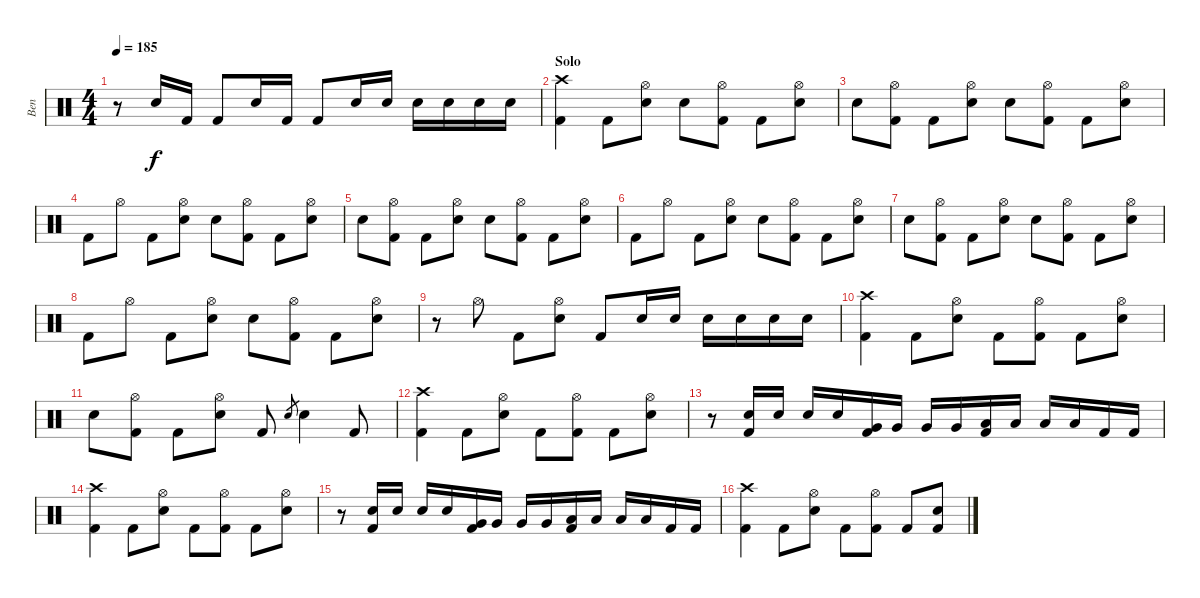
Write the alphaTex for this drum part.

\track ("Ben" "Ben") {instrument percussion}
\staff {score}
\articulation defaults
\ts (4 4)
\tempo 185
\clef neutral
\ks c
r.8{dy f} "Electric Snare (hit)".16 "Kick (hit) 2".16 "Kick (hit) 2".8 "Electric Snare (hit)".16 "Kick (hit) 2".16 "Kick (hit) 2".8 "Electric Snare (hit)".16 "Electric Snare (hit)".16 "Electric Snare (hit)".16 "Electric Snare (hit)".16 "Electric Snare (hit)".16 "Electric Snare (hit)".16 |
\section ("" "Solo")
("Crash high (hit)" "Kick (hit) 2").4 "Kick (hit) 2".8 ("Hi-Hat (open)" "Electric Snare (hit)").8 "Electric Snare (hit)".8 ("Hi-Hat (open)" "Kick (hit) 2").8 "Kick (hit) 2".8 ("Hi-Hat (open)" "Electric Snare (hit)").8 |
"Electric Snare (hit)".8 ("Hi-Hat (open)" "Kick (hit) 2").8 "Kick (hit) 2".8 ("Hi-Hat (open)" "Electric Snare (hit)").8 "Electric Snare (hit)".8 ("Hi-Hat (open)" "Kick (hit) 2").8 "Kick (hit) 2".8 ("Hi-Hat (open)" "Electric Snare (hit)").8 |
"Kick (hit) 2".8 "Hi-Hat (open)".8 "Kick (hit) 2".8 ("Hi-Hat (open)" "Electric Snare (hit)").8 "Electric Snare (hit)".8 ("Hi-Hat (open)" "Kick (hit) 2").8 "Kick (hit) 2".8 ("Hi-Hat (open)" "Electric Snare (hit)").8 |
"Electric Snare (hit)".8 ("Hi-Hat (open)" "Kick (hit) 2").8 "Kick (hit) 2".8 ("Hi-Hat (open)" "Electric Snare (hit)").8 "Electric Snare (hit)".8 ("Hi-Hat (open)" "Kick (hit) 2").8 "Kick (hit) 2".8 ("Hi-Hat (open)" "Electric Snare (hit)").8 |
"Kick (hit) 2".8 "Hi-Hat (open)".8 "Kick (hit) 2".8 ("Hi-Hat (open)" "Electric Snare (hit)").8 "Electric Snare (hit)".8 ("Hi-Hat (open)" "Kick (hit) 2").8 "Kick (hit) 2".8 ("Hi-Hat (open)" "Electric Snare (hit)").8 |
"Electric Snare (hit)".8 ("Hi-Hat (open)" "Kick (hit) 2").8 "Kick (hit) 2".8 ("Hi-Hat (open)" "Electric Snare (hit)").8 "Electric Snare (hit)".8 ("Hi-Hat (open)" "Kick (hit) 2").8 "Kick (hit) 2".8 ("Hi-Hat (open)" "Electric Snare (hit)").8 |
"Kick (hit) 2".8 "Hi-Hat (open)".8 "Kick (hit) 2".8 ("Hi-Hat (open)" "Electric Snare (hit)").8 "Electric Snare (hit)".8 ("Hi-Hat (open)" "Kick (hit) 2").8 "Kick (hit) 2".8 ("Hi-Hat (open)" "Electric Snare (hit)").8 |
r.8 "Hi-Hat (open)".8 "Kick (hit) 2".8 ("Hi-Hat (open)" "Electric Snare (hit)").8 "Kick (hit) 2".8 "Electric Snare (hit)".16 "Electric Snare (hit)".16 "Electric Snare (hit)".16 "Electric Snare (hit)".16 "Electric Snare (hit)".16 "Electric Snare (hit)".16 |
("Crash high (hit)" "Kick (hit) 2").4 "Kick (hit) 2".8 ("Hi-Hat (open)" "Electric Snare (hit)").8 "Kick (hit) 2".8 ("Hi-Hat (open)" "Kick (hit) 2").8 "Kick (hit) 2".8 ("Hi-Hat (open)" "Electric Snare (hit)").8 |
"Electric Snare (hit)".8 ("Hi-Hat (open)" "Kick (hit) 2").8 "Kick (hit) 2".8 ("Hi-Hat (open)" "Electric Snare (hit)").8 "Kick (hit) 2".8 "Electric Snare (hit)".8{gr} "Electric Snare (hit)".4 "Kick (hit) 2".8 |
("Crash high (hit)" "Kick (hit) 2").4 "Kick (hit) 2".8 ("Hi-Hat (open)" "Electric Snare (hit)").8 "Kick (hit) 2".8 ("Hi-Hat (open)" "Kick (hit) 2").8 "Kick (hit) 2".8 ("Hi-Hat (open)" "Electric Snare (hit)").8 |
r.8 ("Electric Snare (hit)" "Kick (hit) 2").16 "Electric Snare (hit)".16 "Electric Snare (hit)".16 "Electric Snare (hit)".16 ("Very Low Tom (hit)" "Kick (hit) 2").16 "Very Low Tom (hit)".16 "Very Low Tom (hit)".16 "Very Low Tom (hit)".16 ("Low Floor Tom (hit)" "Kick (hit) 2").16 "Low Floor Tom (hit)".16 "Low Floor Tom (hit)".16 "Low Floor Tom (hit)".16 "Kick (hit) 2".16 "Kick (hit) 2".16 |
("Crash high (hit)" "Kick (hit) 2").4 "Kick (hit) 2".8 ("Hi-Hat (open)" "Electric Snare (hit)").8 "Kick (hit) 2".8 ("Hi-Hat (open)" "Kick (hit) 2").8 "Kick (hit) 2".8 ("Hi-Hat (open)" "Electric Snare (hit)").8 |
r.8 ("Electric Snare (hit)" "Kick (hit) 2").16 "Electric Snare (hit)".16 "Electric Snare (hit)".16 "Electric Snare (hit)".16 ("Very Low Tom (hit)" "Kick (hit) 2").16 "Very Low Tom (hit)".16 "Very Low Tom (hit)".16 "Very Low Tom (hit)".16 ("Low Floor Tom (hit)" "Kick (hit) 2").16 "Low Floor Tom (hit)".16 "Low Floor Tom (hit)".16 "Low Floor Tom (hit)".16 "Kick (hit) 2".16 "Kick (hit) 2".16 |
("Crash high (hit)" "Kick (hit) 2").4 "Kick (hit) 2".8 ("Hi-Hat (open)" "Electric Snare (hit)").8 "Kick (hit) 2".8 ("Hi-Hat (open)" "Kick (hit) 2").8 "Kick (hit) 2".8 ("Electric Snare (hit)" "Kick (hit) 2").8
